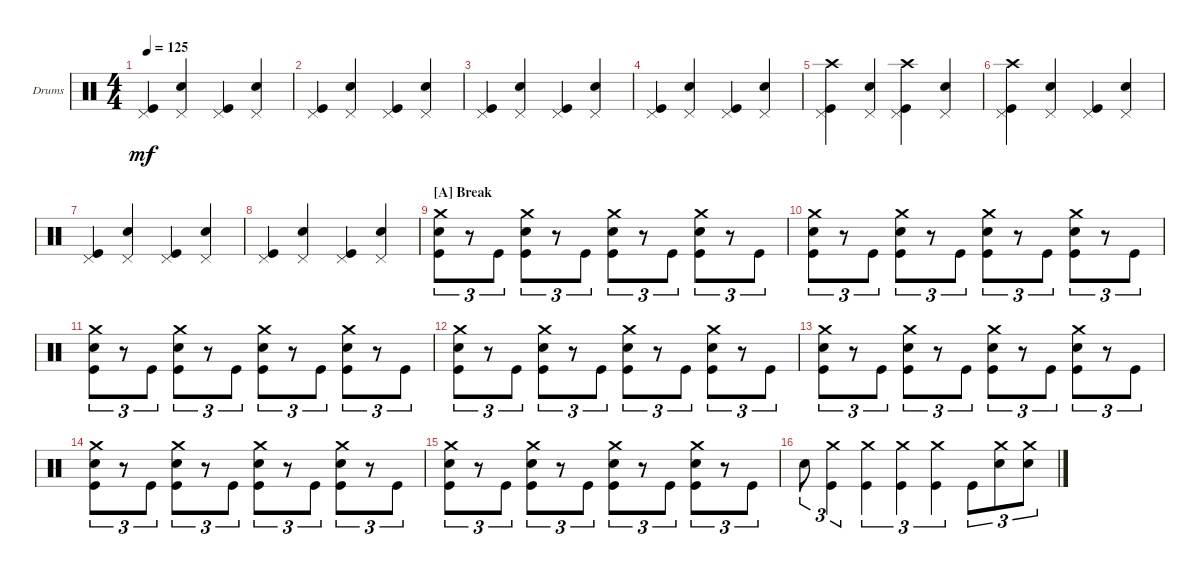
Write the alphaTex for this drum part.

\defaultSystemsLayout 4
\bracketExtendMode groupsimilarinstruments
\firstSystemTrackNameOrientation horizontal
\otherSystemsTrackNameOrientation horizontal
\track ("Drumkit" "Drums") {instrument percussion}
\staff {score}
\articulation defaults
\ts (4 4)
\tempo 125
\clef neutral
\ks c
("Kick (hit)" "Pedal Hi-Hat (hit)").4{dy mf} ("Snare (hit) 2" "Pedal Hi-Hat (hit)").4 ("Kick (hit)" "Pedal Hi-Hat (hit)").4 ("Snare (hit) 2" "Pedal Hi-Hat (hit)").4 |
("Kick (hit)" "Pedal Hi-Hat (hit)").4 ("Snare (hit) 2" "Pedal Hi-Hat (hit)").4 ("Kick (hit)" "Pedal Hi-Hat (hit)").4 ("Snare (hit) 2" "Pedal Hi-Hat (hit)").4 |
("Kick (hit)" "Pedal Hi-Hat (hit)").4 ("Snare (hit) 2" "Pedal Hi-Hat (hit)").4 ("Kick (hit)" "Pedal Hi-Hat (hit)").4 ("Snare (hit) 2" "Pedal Hi-Hat (hit)").4 |
("Kick (hit)" "Pedal Hi-Hat (hit)").4 ("Snare (hit) 2" "Pedal Hi-Hat (hit)").4 ("Kick (hit)" "Pedal Hi-Hat (hit)").4 ("Snare (hit) 2" "Pedal Hi-Hat (hit)").4 |
("Kick (hit)" "Crash high (hit)" "Pedal Hi-Hat (hit)").4 ("Snare (hit) 2" "Pedal Hi-Hat (hit)").4 ("Kick (hit)" "Crash high (hit)" "Pedal Hi-Hat (hit)").4 ("Snare (hit) 2" "Pedal Hi-Hat (hit)").4 |
("Kick (hit)" "Crash high (hit)" "Pedal Hi-Hat (hit)").4 ("Snare (hit) 2" "Pedal Hi-Hat (hit)").4 ("Kick (hit)" "Pedal Hi-Hat (hit)").4 ("Snare (hit) 2" "Pedal Hi-Hat (hit)").4 |
("Kick (hit)" "Pedal Hi-Hat (hit)").4 ("Snare (hit) 2" "Pedal Hi-Hat (hit)").4 ("Kick (hit)" "Pedal Hi-Hat (hit)").4 ("Snare (hit) 2" "Pedal Hi-Hat (hit)").4 |
("Kick (hit)" "Pedal Hi-Hat (hit)").4 ("Snare (hit) 2" "Pedal Hi-Hat (hit)").4 ("Kick (hit)" "Pedal Hi-Hat (hit)").4 ("Snare (hit) 2" "Pedal Hi-Hat (hit)").4 |
\section ("A" "Break")
("Kick (hit)" "Crash medium (hit)" "Snare (hit) 2").8{tu (3 2)} r.8{tu (3 2)} "Kick (hit)".8{tu (3 2)} ("Kick (hit)" "Snare (hit) 2" "Crash medium (hit)").8{tu (3 2)} r.8{tu (3 2)} "Kick (hit)".8{tu (3 2)} ("Kick (hit)" "Snare (hit) 2" "Crash medium (hit)").8{tu (3 2)} r.8{tu (3 2)} "Kick (hit)".8{tu (3 2)} ("Kick (hit)" "Crash medium (hit)" "Snare (hit) 2").8{tu (3 2)} r.8{tu (3 2)} "Kick (hit)".8{tu (3 2)} |
("Kick (hit)" "Crash medium (hit)" "Snare (hit) 2").8{tu (3 2)} r.8{tu (3 2)} "Kick (hit)".8{tu (3 2)} ("Kick (hit)" "Snare (hit) 2" "Crash medium (hit)").8{tu (3 2)} r.8{tu (3 2)} "Kick (hit)".8{tu (3 2)} ("Kick (hit)" "Snare (hit) 2" "Crash medium (hit)").8{tu (3 2)} r.8{tu (3 2)} "Kick (hit)".8{tu (3 2)} ("Kick (hit)" "Crash medium (hit)" "Snare (hit) 2").8{tu (3 2)} r.8{tu (3 2)} "Kick (hit)".8{tu (3 2)} |
("Kick (hit)" "Crash medium (hit)" "Snare (hit) 2").8{tu (3 2)} r.8{tu (3 2)} "Kick (hit)".8{tu (3 2)} ("Kick (hit)" "Snare (hit) 2" "Crash medium (hit)").8{tu (3 2)} r.8{tu (3 2)} "Kick (hit)".8{tu (3 2)} ("Kick (hit)" "Snare (hit) 2" "Crash medium (hit)").8{tu (3 2)} r.8{tu (3 2)} "Kick (hit)".8{tu (3 2)} ("Kick (hit)" "Crash medium (hit)" "Snare (hit) 2").8{tu (3 2)} r.8{tu (3 2)} "Kick (hit)".8{tu (3 2)} |
("Kick (hit)" "Crash medium (hit)" "Snare (hit) 2").8{tu (3 2)} r.8{tu (3 2)} "Kick (hit)".8{tu (3 2)} ("Kick (hit)" "Snare (hit) 2" "Crash medium (hit)").8{tu (3 2)} r.8{tu (3 2)} "Kick (hit)".8{tu (3 2)} ("Kick (hit)" "Snare (hit) 2" "Crash medium (hit)").8{tu (3 2)} r.8{tu (3 2)} "Kick (hit)".8{tu (3 2)} ("Kick (hit)" "Crash medium (hit)" "Snare (hit) 2").8{tu (3 2)} r.8{tu (3 2)} "Kick (hit)".8{tu (3 2)} |
("Kick (hit)" "Crash medium (hit)" "Snare (hit) 2").8{tu (3 2)} r.8{tu (3 2)} "Kick (hit)".8{tu (3 2)} ("Kick (hit)" "Snare (hit) 2" "Crash medium (hit)").8{tu (3 2)} r.8{tu (3 2)} "Kick (hit)".8{tu (3 2)} ("Kick (hit)" "Snare (hit) 2" "Crash medium (hit)").8{tu (3 2)} r.8{tu (3 2)} "Kick (hit)".8{tu (3 2)} ("Kick (hit)" "Crash medium (hit)" "Snare (hit) 2").8{tu (3 2)} r.8{tu (3 2)} "Kick (hit)".8{tu (3 2)} |
("Kick (hit)" "Crash medium (hit)" "Snare (hit) 2").8{tu (3 2)} r.8{tu (3 2)} "Kick (hit)".8{tu (3 2)} ("Kick (hit)" "Snare (hit) 2" "Crash medium (hit)").8{tu (3 2)} r.8{tu (3 2)} "Kick (hit)".8{tu (3 2)} ("Kick (hit)" "Snare (hit) 2" "Crash medium (hit)").8{tu (3 2)} r.8{tu (3 2)} "Kick (hit)".8{tu (3 2)} ("Kick (hit)" "Crash medium (hit)" "Snare (hit) 2").8{tu (3 2)} r.8{tu (3 2)} "Kick (hit)".8{tu (3 2)} |
("Kick (hit)" "Crash medium (hit)" "Snare (hit) 2").8{tu (3 2)} r.8{tu (3 2)} "Kick (hit)".8{tu (3 2)} ("Kick (hit)" "Snare (hit) 2" "Crash medium (hit)").8{tu (3 2)} r.8{tu (3 2)} "Kick (hit)".8{tu (3 2)} ("Kick (hit)" "Snare (hit) 2" "Crash medium (hit)").8{tu (3 2)} r.8{tu (3 2)} "Kick (hit)".8{tu (3 2)} ("Kick (hit)" "Crash medium (hit)" "Snare (hit) 2").8{tu (3 2)} r.8{tu (3 2)} "Kick (hit)".8{tu (3 2)} |
"Snare (hit) 2".8{tu (3 2)} ("Kick (hit)" "Crash medium (hit)").4{tu (3 2)} ("Kick (hit)" "Crash medium (hit)").4{tu (3 2)} ("Kick (hit)" "Crash medium (hit)").4{tu (3 2)} ("Kick (hit)" "Crash medium (hit)").4{tu (3 2)} "Kick (hit)".8{tu (3 2)} ("Snare (hit) 2" "Crash medium (hit)").8{tu (3 2)} ("Snare (hit) 2" "Crash medium (hit)").8{tu (3 2)}
